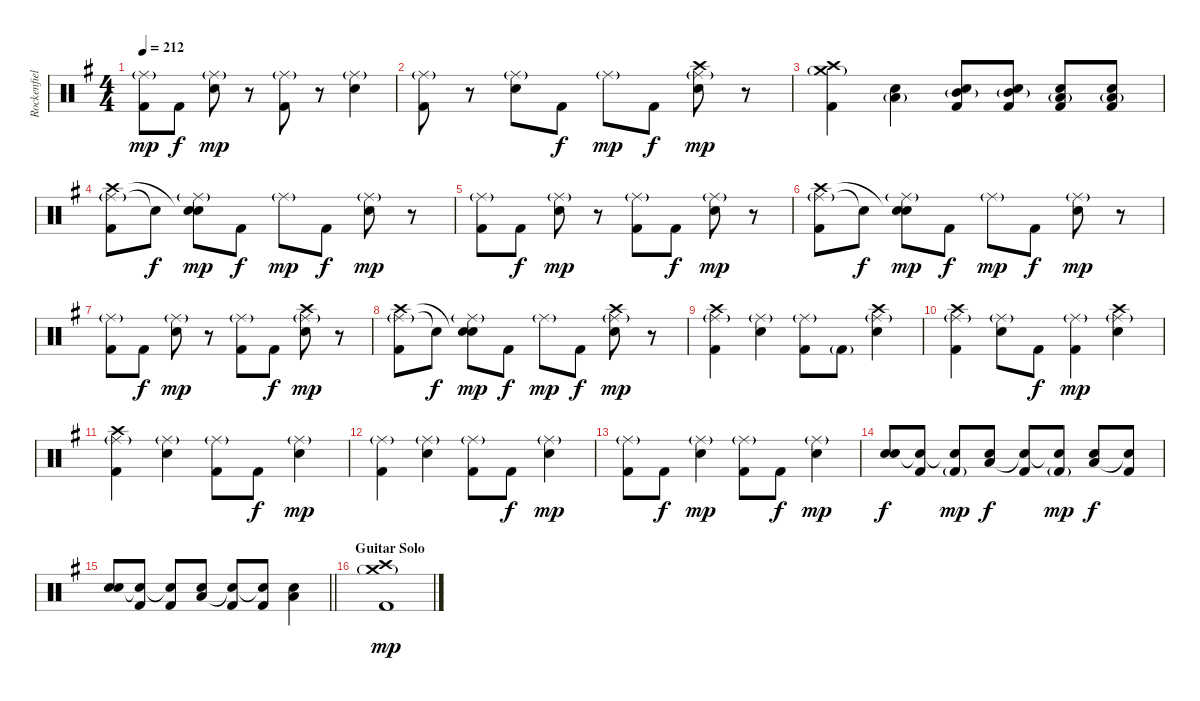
\track ("Rockenfield" "Rockenfiel") {instrument percussion}
\staff {score}
\articulation defaults
\ts (4 4)
\tempo 212
\clef neutral
\ks g
("Ride (middle)"{g} "Kick (hit) 2").8{dy mp} "Kick (hit) 2".8{dy f} ("Ride (middle)"{g} "Electric Snare (hit)").8{dy mp} r.8 ("Ride (middle)"{g} "Kick (hit) 2").8 r.8 ("Ride (middle)"{g} "Electric Snare (hit)").4 |
("Ride (middle)"{g} "Kick (hit) 2").8 r.8 ("Ride (middle)"{g} "Electric Snare (hit)").8 "Kick (hit) 2".8{dy f} "Ride (middle)"{g}.8{dy mp} "Kick (hit) 2".8{dy f} ("Ride (middle)"{g} "Crash high (hit)" "Electric Snare (hit)").8{dy mp} r.8 |
("Crash medium (hit)"{g} "Crash high (hit)" "Kick (hit) 2").4 ("Electric Snare (hit)" "Low Floor Tom (hit)"{g}).4 ("Electric Snare (hit)" "Mid Tom (hit)"{g} "Kick (hit) 2").8 ("Electric Snare (hit)" "Mid Tom (hit)"{g} "Kick (hit) 2").8 ("Electric Snare (hit)" "Low Tom (hit)"{g} "Kick (hit) 2").8 ("Electric Snare (hit)" "Low Tom (hit)"{g} "Kick (hit) 2").8 |
("Ride (middle)"{g} "Crash high (hit)" "Kick (hit) 2").8 "Snare (hit)"{t}.8{dy f} ("Ride (middle)"{g} "Snare (hit)"{t} "Electric Snare (hit)").8{dy mp} "Kick (hit) 2".8{dy f} "Ride (middle)"{g}.8{dy mp} "Kick (hit) 2".8{dy f} ("Ride (middle)"{g} "Electric Snare (hit)").8{dy mp} r.8 |
("Ride (middle)"{g} "Kick (hit) 2").8 "Kick (hit) 2".8{dy f} ("Ride (middle)"{g} "Electric Snare (hit)").8{dy mp} r.8 ("Ride (middle)"{g} "Kick (hit) 2").8 "Kick (hit) 2".8{dy f} ("Ride (middle)"{g} "Electric Snare (hit)").8{dy mp} r.8 |
("Ride (middle)"{g} "Crash high (hit)" "Kick (hit) 2").8 "Snare (hit)"{t}.8{dy f} ("Ride (middle)"{g} "Snare (hit)"{t} "Electric Snare (hit)").8{dy mp} "Kick (hit) 2".8{dy f} "Ride (middle)"{g}.8{dy mp} "Kick (hit) 2".8{dy f} ("Ride (middle)"{g} "Electric Snare (hit)").8{dy mp} r.8 |
("Ride (middle)"{g} "Kick (hit) 2").8 "Kick (hit) 2".8{dy f} ("Ride (middle)"{g} "Electric Snare (hit)").8{dy mp} r.8 ("Ride (middle)"{g} "Kick (hit) 2").8 "Kick (hit) 2".8{dy f} ("Ride (middle)"{g} "Crash high (hit)" "Electric Snare (hit)").8{dy mp} r.8 |
("Ride (middle)"{g} "Crash high (hit)" "Kick (hit) 2").8 "Snare (hit)"{t}.8{dy f} ("Ride (middle)"{g} "Snare (hit)"{t} "Electric Snare (hit)").8{dy mp} "Kick (hit) 2".8{dy f} "Ride (middle)"{g}.8{dy mp} "Kick (hit) 2".8{dy f} ("Ride (middle)"{g} "Crash high (hit)" "Electric Snare (hit)").8{dy mp} r.8 |
("Ride (middle)"{g} "Crash high (hit)" "Kick (hit) 2").4 ("Ride (middle)"{g} "Electric Snare (hit)").4 ("Ride (middle)"{g} "Kick (hit) 2").8 "Kick (hit) 2"{g}.8 ("Ride (middle)"{g} "Crash high (hit)" "Electric Snare (hit)").4 |
("Ride (middle)"{g} "Crash high (hit)" "Kick (hit) 2").4 ("Ride (middle)"{g} "Electric Snare (hit)").8 "Kick (hit) 2".8{dy f} ("Ride (middle)"{g} "Kick (hit) 2").4{dy mp} ("Ride (middle)"{g} "Crash high (hit)" "Electric Snare (hit)").4 |
("Ride (middle)"{g} "Crash high (hit)" "Kick (hit) 2").4 ("Ride (middle)"{g} "Electric Snare (hit)").4 ("Ride (middle)"{g} "Kick (hit) 2").8 "Kick (hit) 2".8{dy f} ("Ride (middle)"{g} "Electric Snare (hit)").4{dy mp} |
("Ride (middle)"{g} "Kick (hit) 2").4 ("Ride (middle)"{g} "Electric Snare (hit)").4 ("Ride (middle)"{g} "Kick (hit) 2").8 "Kick (hit) 2".8{dy f} ("Ride (middle)"{g} "Electric Snare (hit)").4{dy mp} |
("Ride (middle)"{g} "Kick (hit) 2").8 "Kick (hit) 2".8{dy f} ("Ride (middle)"{g} "Electric Snare (hit)").4{dy mp} ("Ride (middle)"{g} "Kick (hit) 2").8 "Kick (hit) 2".8{dy f} ("Ride (middle)"{g} "Electric Snare (hit)").4{dy mp} |
("Electric Snare (hit)" "Electric Snare (hit)").8{dy f} ("Snare (hit)"{t} "Kick (hit) 2").8 ("Snare (hit)"{t} "Kick (hit) 2"{g}).8{dy mp} ("Low Floor Tom (hit)" "Electric Snare (hit)").8{dy f} ("Snare (hit)"{t} "Kick (hit) 2").8 ("Snare (hit)"{t} "Kick (hit) 2"{g}).8{dy mp} ("Low Floor Tom (hit)" "Electric Snare (hit)").8{dy f} ("Snare (hit)"{t} "Kick (hit) 2").8 |
\barLineRight lightlight
("Electric Snare (hit)" "Electric Snare (hit)").8 ("Snare (hit)"{t} "Kick (hit) 2").8 ("Snare (hit)"{t} "Kick (hit) 2").8 ("Low Floor Tom (hit)" "Electric Snare (hit)").8 ("Snare (hit)"{t} "Kick (hit) 2").8 ("Snare (hit)"{t} "Kick (hit) 2").8 ("Low Floor Tom (hit)" "Electric Snare (hit)").4 |
\section ("" "Guitar Solo")
("Crash medium (hit)"{g} "Crash high (hit)" "Kick (hit) 2").1{dy mp}
